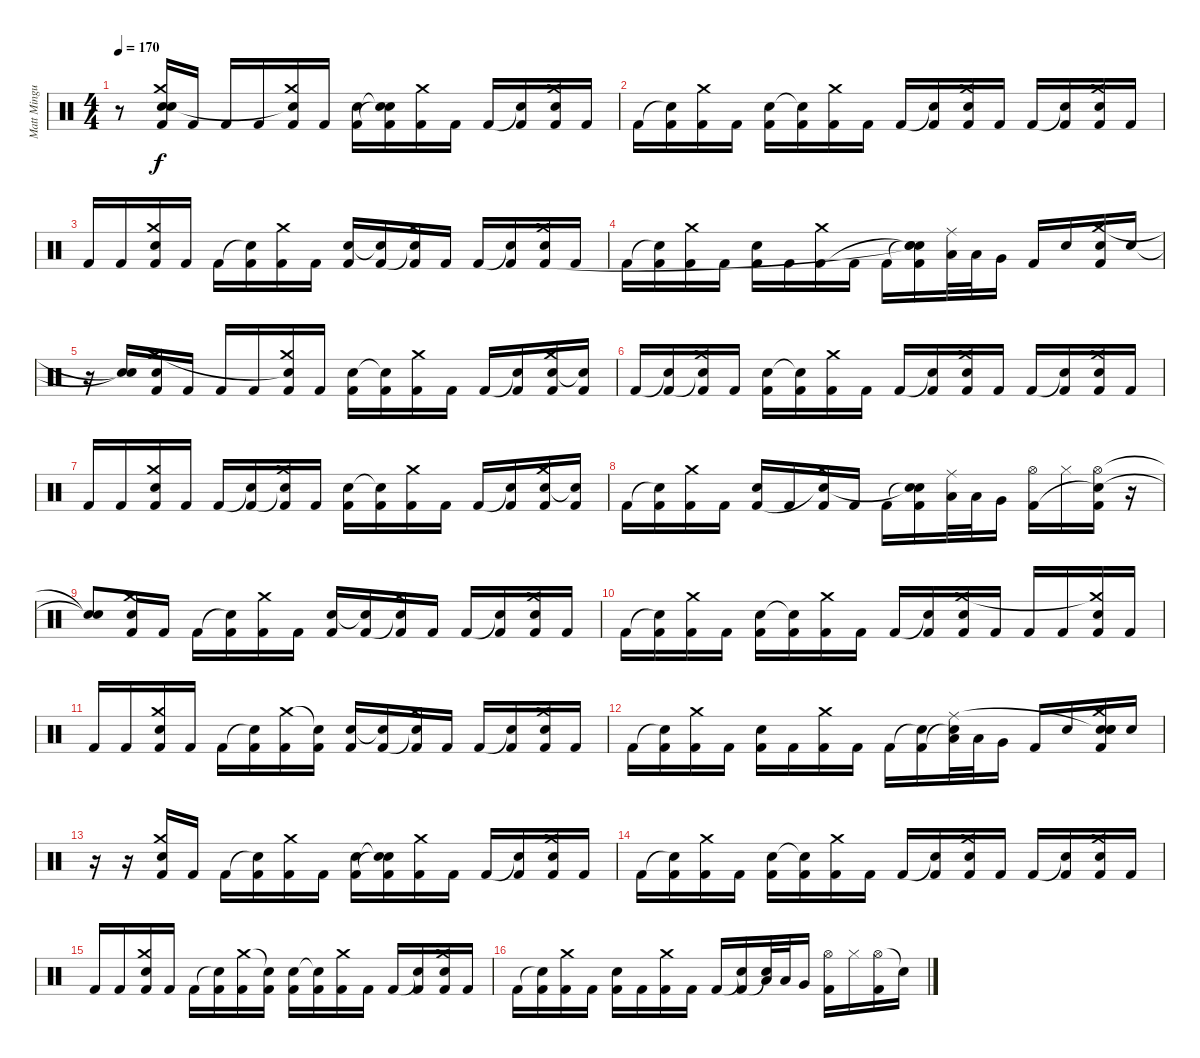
\track ("Matt Mingus" "Matt Mingu") {instrument percussion}
\staff {score}
\articulation defaults
\ts (4 4)
\tempo 170
\clef neutral
\ks c
r.8{dy f} ("Electric Snare (hit)" "Snare (hit)"{t} "Crash medium (hit)" "Kick (hit) 2").16 "Kick (hit) 2".16 "Kick (hit) 2".16 "Kick (hit) 2".16 ("Crash medium (hit)" "Snare (hit)"{t} "Kick (hit) 2").16 "Kick (hit) 2".16 ("Electric Snare (hit)" "Kick (hit) 2").16 ("Snare (hit)"{t} "Snare (hit)"{t} "Kick (hit) 2").16 ("Crash medium (hit)" "Kick (hit) 2").16 "Kick (hit) 2".16 "Kick (hit) 2".16 ("Snare (hit)"{t} "Kick (hit) 2").16 ("Electric Snare (hit)" "Crash medium (hit)" "Kick (hit) 2").16 "Kick (hit) 2".16 |
"Kick (hit) 2".16 ("Snare (hit)"{t} "Kick (hit) 2").16 ("Crash medium (hit)" "Kick (hit) 2").16 "Kick (hit) 2".16 ("Electric Snare (hit)" "Kick (hit) 2").16 ("Snare (hit)"{t} "Kick (hit) 2").16 ("Crash medium (hit)" "Kick (hit) 2").16 "Kick (hit) 2".16 "Kick (hit) 2".16 ("Snare (hit)"{t} "Kick (hit) 2").16 ("Electric Snare (hit)" "Crash medium (hit)" "Kick (hit) 2").16 "Kick (hit) 2".16 "Kick (hit) 2".16 ("Snare (hit)"{t} "Kick (hit) 2").16 ("Electric Snare (hit)" "Crash medium (hit)" "Kick (hit) 2").16 "Kick (hit) 2".16 |
"Kick (hit) 2".16 "Kick (hit) 2".16 ("Electric Snare (hit)" "Crash medium (hit)" "Kick (hit) 2").16 "Kick (hit) 2".16 "Kick (hit) 2".16 ("Snare (hit)"{t} "Kick (hit) 2").16 ("Crash medium (hit)" "Kick (hit) 2").16 "Kick (hit) 2".16 ("Electric Snare (hit)" "Kick (hit) 2").16 ("Snare (hit)"{t} "Kick (hit) 2").16 ("Crash medium (hit)" "Snare (hit)"{t} "Kick (hit) 2").16 "Kick (hit) 2".16 "Kick (hit) 2".16 ("Snare (hit)"{t} "Kick (hit) 2").16 ("Electric Snare (hit)" "Crash medium (hit)" "Kick (hit) 2").16 "Kick (hit) 2".16 |
"Kick (hit) 2".16 ("Snare (hit)"{t} "Kick (hit) 2").16 ("Crash medium (hit)" "Kick (hit) 2").16 "Kick (hit) 2".16 ("Electric Snare (hit)" "Kick (hit) 2").16 "Kick (hit) 2".16 ("Crash medium (hit)" "Kick (hit) 2").16 "Kick (hit) 2".16 "Kick (hit) 2".16 ("Snare (hit)"{t} "Snare (hit)"{t} "Snare (hit)"{t} "Kick (hit) 2").16 ("Low Tom (hit)" "Ride (middle)").32 "Low Tom (hit)".32 "Very Low Tom (hit)".16 "Kick (hit) 2".16 "Electric Snare (hit)".16 ("Electric Snare (hit)" "Crash medium (hit)" "Kick (hit) 2").16 "Electric Snare (hit)".16 |
r.16 ("Snare (hit)"{t} "Snare (hit)"{t}).16 ("Electric Snare (hit)" "Crash medium (hit)" "Kick (hit) 2").16 "Kick (hit) 2".16 "Kick (hit) 2".16 "Kick (hit) 2".16 ("Crash medium (hit)" "Snare (hit)"{t} "Kick (hit) 2").16 "Kick (hit) 2".16 ("Electric Snare (hit)" "Kick (hit) 2").16 ("Snare (hit)"{t} "Kick (hit) 2").16 ("Crash medium (hit)" "Kick (hit) 2").16 "Kick (hit) 2".16 "Kick (hit) 2".16 ("Snare (hit)"{t} "Kick (hit) 2").16 ("Electric Snare (hit)" "Crash medium (hit)" "Kick (hit) 2").16 ("Snare (hit)"{t} "Kick (hit) 2").16 |
"Kick (hit) 2".16 ("Snare (hit)"{t} "Kick (hit) 2").16 ("Crash medium (hit)" "Snare (hit)"{t} "Kick (hit) 2").16 "Kick (hit) 2".16 ("Electric Snare (hit)" "Kick (hit) 2").16 ("Snare (hit)"{t} "Kick (hit) 2").16 ("Crash medium (hit)" "Kick (hit) 2").16 "Kick (hit) 2".16 "Kick (hit) 2".16 ("Snare (hit)"{t} "Kick (hit) 2").16 ("Electric Snare (hit)" "Crash medium (hit)" "Kick (hit) 2").16 "Kick (hit) 2".16 "Kick (hit) 2".16 ("Snare (hit)"{t} "Kick (hit) 2").16 ("Electric Snare (hit)" "Crash medium (hit)" "Kick (hit) 2").16 "Kick (hit) 2".16 |
"Kick (hit) 2".16 "Kick (hit) 2".16 ("Electric Snare (hit)" "Crash medium (hit)" "Kick (hit) 2").16 "Kick (hit) 2".16 "Kick (hit) 2".16 ("Snare (hit)"{t} "Kick (hit) 2").16 ("Crash medium (hit)" "Snare (hit)"{t} "Kick (hit) 2").16 "Kick (hit) 2".16 ("Electric Snare (hit)" "Kick (hit) 2").16 ("Snare (hit)"{t} "Kick (hit) 2").16 ("Crash medium (hit)" "Kick (hit) 2").16 "Kick (hit) 2".16 "Kick (hit) 2".16 ("Snare (hit)"{t} "Kick (hit) 2").16 ("Electric Snare (hit)" "Crash medium (hit)" "Kick (hit) 2").16 ("Snare (hit)"{t} "Kick (hit) 2").16 |
"Kick (hit) 2".16 ("Snare (hit)"{t} "Kick (hit) 2").16 ("Crash medium (hit)" "Kick (hit) 2").16 "Kick (hit) 2".16 ("Electric Snare (hit)" "Kick (hit) 2").16 "Kick (hit) 2".16 ("Crash medium (hit)" "Snare (hit)"{t} "Kick (hit) 2").16 "Kick (hit) 2".16 "Kick (hit) 2".16 ("Snare (hit)"{t} "Snare (hit)"{t} "Kick (hit) 2").16 ("Low Tom (hit)" "Ride (middle)").32 "Low Tom (hit)".32 "Very Low Tom (hit)".16 ("Hi-Hat (open)" "Kick (hit) 2").16 "Hi-Hat (closed)".16 ("Hi-Hat (open)" "Snare (hit)"{t} "Kick (hit) 2").16 r.16 |
("Snare (hit)"{t} "Snare (hit)"{t}).8 ("Electric Snare (hit)" "Crash medium (hit)" "Kick (hit) 2").16 "Kick (hit) 2".16 "Kick (hit) 2".16 ("Snare (hit)"{t} "Kick (hit) 2").16 ("Crash medium (hit)" "Kick (hit) 2").16 "Kick (hit) 2".16 ("Electric Snare (hit)" "Kick (hit) 2").16 ("Snare (hit)"{t} "Kick (hit) 2").16 ("Crash medium (hit)" "Snare (hit)"{t} "Kick (hit) 2").16 "Kick (hit) 2".16 "Kick (hit) 2".16 ("Snare (hit)"{t} "Kick (hit) 2").16 ("Electric Snare (hit)" "Crash medium (hit)" "Kick (hit) 2").16 "Kick (hit) 2".16 |
"Kick (hit) 2".16 ("Snare (hit)"{t} "Kick (hit) 2").16 ("Crash medium (hit)" "Kick (hit) 2").16 "Kick (hit) 2".16 ("Electric Snare (hit)" "Kick (hit) 2").16 ("Snare (hit)"{t} "Kick (hit) 2").16 ("Crash medium (hit)" "Kick (hit) 2").16 "Kick (hit) 2".16 "Kick (hit) 2".16 ("Snare (hit)"{t} "Kick (hit) 2").16 ("Electric Snare (hit)" "Crash medium (hit)" "Kick (hit) 2").16 "Kick (hit) 2".16 "Kick (hit) 2".16 "Kick (hit) 2".16 ("Electric Snare (hit)" "Crash medium (hit)"{t} "Kick (hit) 2").16 "Kick (hit) 2".16 |
"Kick (hit) 2".16 "Kick (hit) 2".16 ("Electric Snare (hit)" "Crash medium (hit)" "Kick (hit) 2").16 "Kick (hit) 2".16 "Kick (hit) 2".16 ("Snare (hit)"{t} "Kick (hit) 2").16 ("Crash medium (hit)" "Kick (hit) 2").16 ("Snare (hit)"{t} "Kick (hit) 2").16 ("Electric Snare (hit)" "Kick (hit) 2").16 ("Snare (hit)"{t} "Kick (hit) 2").16 ("Crash medium (hit)" "Snare (hit)"{t} "Kick (hit) 2").16 "Kick (hit) 2".16 "Kick (hit) 2".16 ("Snare (hit)"{t} "Kick (hit) 2").16 ("Electric Snare (hit)" "Crash medium (hit)" "Kick (hit) 2").16 "Kick (hit) 2".16 |
"Kick (hit) 2".16 ("Snare (hit)"{t} "Kick (hit) 2").16 ("Crash medium (hit)" "Kick (hit) 2").16 "Kick (hit) 2".16 ("Electric Snare (hit)" "Kick (hit) 2").16 "Kick (hit) 2".16 ("Crash medium (hit)" "Kick (hit) 2").16 "Kick (hit) 2".16 "Kick (hit) 2".16 ("Snare (hit)"{t} "Kick (hit) 2").16 ("Low Tom (hit)" "Snare (hit)"{t} "Ride (middle)").32 "Low Tom (hit)".32 "Very Low Tom (hit)".16 "Kick (hit) 2".16 "Electric Snare (hit)".16 ("Electric Snare (hit)" "Crash medium (hit)" "Snare (hit)"{t} "Snare (hit)" "Kick (hit) 2").16 "Electric Snare (hit)".16 |
r.16 r.16 ("Electric Snare (hit)" "Crash medium (hit)" "Kick (hit) 2").16 "Kick (hit) 2".16 "Kick (hit) 2".16 ("Snare (hit)"{t} "Kick (hit) 2").16 ("Crash medium (hit)" "Kick (hit) 2").16 "Kick (hit) 2".16 ("Electric Snare (hit)" "Kick (hit) 2").16 ("Snare (hit)"{t} "Snare (hit)"{t} "Kick (hit) 2").16 ("Crash medium (hit)" "Kick (hit) 2").16 "Kick (hit) 2".16 "Kick (hit) 2".16 ("Snare (hit)"{t} "Kick (hit) 2").16 ("Electric Snare (hit)" "Crash medium (hit)" "Kick (hit) 2").16 "Kick (hit) 2".16 |
"Kick (hit) 2".16 ("Snare (hit)"{t} "Kick (hit) 2").16 ("Crash medium (hit)" "Kick (hit) 2").16 "Kick (hit) 2".16 ("Electric Snare (hit)" "Kick (hit) 2").16 ("Snare (hit)"{t} "Kick (hit) 2").16 ("Crash medium (hit)" "Kick (hit) 2").16 "Kick (hit) 2".16 "Kick (hit) 2".16 ("Snare (hit)"{t} "Kick (hit) 2").16 ("Electric Snare (hit)" "Crash medium (hit)" "Kick (hit) 2").16 "Kick (hit) 2".16 "Kick (hit) 2".16 ("Snare (hit)"{t} "Kick (hit) 2").16 ("Electric Snare (hit)" "Crash medium (hit)" "Kick (hit) 2").16 "Kick (hit) 2".16 |
"Kick (hit) 2".16 "Kick (hit) 2".16 ("Electric Snare (hit)" "Crash medium (hit)" "Kick (hit) 2").16 "Kick (hit) 2".16 "Kick (hit) 2".16 ("Snare (hit)"{t} "Kick (hit) 2").16 ("Crash medium (hit)" "Kick (hit) 2").16 ("Snare (hit)"{t} "Kick (hit) 2").16 ("Electric Snare (hit)" "Kick (hit) 2").16 ("Snare (hit)"{t} "Kick (hit) 2").16 ("Crash medium (hit)" "Kick (hit) 2").16 "Kick (hit) 2".16 "Kick (hit) 2".16 ("Snare (hit)"{t} "Kick (hit) 2").16 ("Electric Snare (hit)" "Crash medium (hit)" "Kick (hit) 2").16 "Kick (hit) 2".16 |
"Kick (hit) 2".16 ("Snare (hit)"{t} "Kick (hit) 2").16 ("Crash medium (hit)" "Kick (hit) 2").16 "Kick (hit) 2".16 ("Electric Snare (hit)" "Kick (hit) 2").16 "Kick (hit) 2".16 ("Crash medium (hit)" "Kick (hit) 2").16 "Kick (hit) 2".16 "Kick (hit) 2".16 ("Snare (hit)"{t} "Kick (hit) 2").16 ("Low Tom (hit)" "Snare (hit)"{t}).32 "Low Tom (hit)".32 "Very Low Tom (hit)".16 ("Hi-Hat (open)" "Kick (hit) 2").16 "Hi-Hat (closed)".16 ("Hi-Hat (open)" "Kick (hit) 2").16 "Snare (hit)"{t}.16
